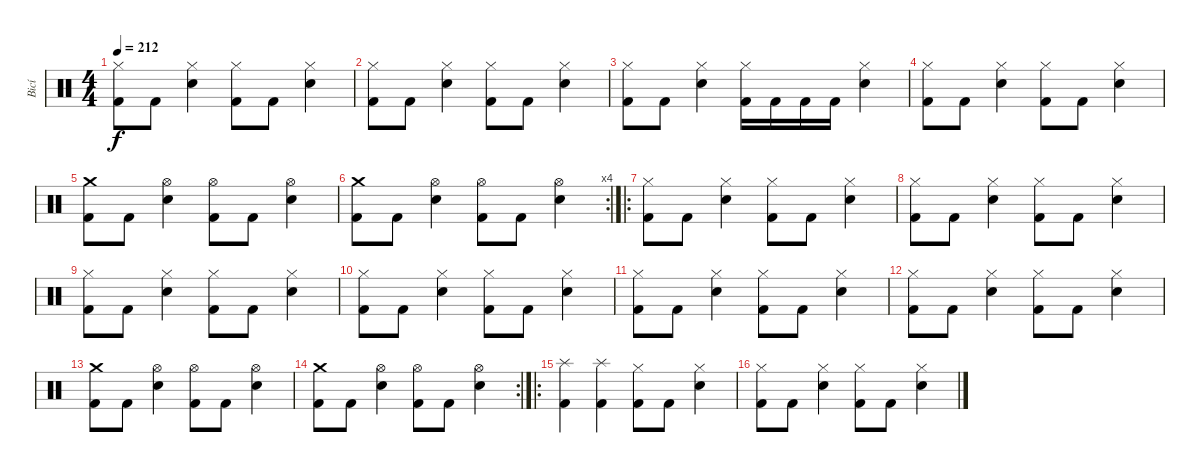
\track ("Bicí" "Bicí") {instrument percussion}
\staff {score}
\articulation defaults
\ts (4 4)
\tempo 212
\clef neutral
\ks c
("Kick (hit) 2" "Hi-Hat (closed)").8{dy f} "Kick (hit) 2".8 ("Snare (hit) 2" "Hi-Hat (closed)").4 ("Kick (hit) 2" "Hi-Hat (closed)").8 "Kick (hit) 2".8 ("Snare (hit) 2" "Hi-Hat (closed)").4 |
("Kick (hit) 2" "Hi-Hat (closed)").8 "Kick (hit) 2".8 ("Snare (hit) 2" "Hi-Hat (closed)").4 ("Kick (hit) 2" "Hi-Hat (closed)").8 "Kick (hit) 2".8 ("Snare (hit) 2" "Hi-Hat (closed)").4 |
("Kick (hit) 2" "Hi-Hat (closed)").8 "Kick (hit) 2".8 ("Snare (hit) 2" "Hi-Hat (closed)").4 ("Kick (hit) 2" "Hi-Hat (closed)").16 "Kick (hit) 2".16 "Kick (hit) 2".16 "Kick (hit) 2".16 ("Snare (hit) 2" "Hi-Hat (closed)").4 |
("Kick (hit) 2" "Hi-Hat (closed)").8 "Kick (hit) 2".8 ("Snare (hit) 2" "Hi-Hat (closed)").4 ("Kick (hit) 2" "Hi-Hat (closed)").8 "Kick (hit) 2".8 ("Snare (hit) 2" "Hi-Hat (closed)").4 |
("Kick (hit) 2" "Crash medium (hit)").8 "Kick (hit) 2".8 ("Snare (hit) 2" "Hi-Hat (open)").4 ("Kick (hit) 2" "Hi-Hat (open)").8 "Kick (hit) 2".8 ("Snare (hit) 2" "Hi-Hat (open)").4 |
\rc 4
("Kick (hit) 2" "Crash medium (hit)").8 "Kick (hit) 2".8 ("Snare (hit) 2" "Hi-Hat (open)").4 ("Kick (hit) 2" "Hi-Hat (open)").8 "Kick (hit) 2".8 ("Snare (hit) 2" "Hi-Hat (open)").4 |
\ro
("Kick (hit) 2" "Hi-Hat (closed)").8 "Kick (hit) 2".8 ("Snare (hit) 2" "Hi-Hat (closed)").4 ("Kick (hit) 2" "Hi-Hat (closed)").8 "Kick (hit) 2".8 ("Snare (hit) 2" "Hi-Hat (closed)").4 |
("Kick (hit) 2" "Hi-Hat (closed)").8 "Kick (hit) 2".8 ("Snare (hit) 2" "Hi-Hat (closed)").4 ("Kick (hit) 2" "Hi-Hat (closed)").8 "Kick (hit) 2".8 ("Snare (hit) 2" "Hi-Hat (closed)").4 |
("Kick (hit) 2" "Hi-Hat (closed)").8 "Kick (hit) 2".8 ("Snare (hit) 2" "Hi-Hat (closed)").4 ("Kick (hit) 2" "Hi-Hat (closed)").8 "Kick (hit) 2".8 ("Snare (hit) 2" "Hi-Hat (closed)").4 |
("Kick (hit) 2" "Hi-Hat (closed)").8 "Kick (hit) 2".8 ("Snare (hit) 2" "Hi-Hat (closed)").4 ("Kick (hit) 2" "Hi-Hat (closed)").8 "Kick (hit) 2".8 ("Snare (hit) 2" "Hi-Hat (closed)").4 |
("Kick (hit) 2" "Hi-Hat (closed)").8 "Kick (hit) 2".8 ("Snare (hit) 2" "Hi-Hat (closed)").4 ("Kick (hit) 2" "Hi-Hat (closed)").8 "Kick (hit) 2".8 ("Snare (hit) 2" "Hi-Hat (closed)").4 |
("Kick (hit) 2" "Hi-Hat (closed)").8 "Kick (hit) 2".8 ("Snare (hit) 2" "Hi-Hat (closed)").4 ("Kick (hit) 2" "Hi-Hat (closed)").8 "Kick (hit) 2".8 ("Snare (hit) 2" "Hi-Hat (closed)").4 |
("Kick (hit) 2" "Crash medium (hit)").8 "Kick (hit) 2".8 ("Snare (hit) 2" "Hi-Hat (open)").4 ("Kick (hit) 2" "Hi-Hat (open)").8 "Kick (hit) 2".8 ("Snare (hit) 2" "Hi-Hat (open)").4 |
\rc 2
("Kick (hit) 2" "Crash medium (hit)").8 "Kick (hit) 2".8 ("Snare (hit) 2" "Hi-Hat (open)").4 ("Kick (hit) 2" "Hi-Hat (open)").8 "Kick (hit) 2".8 ("Snare (hit) 2" "Hi-Hat (open)").4 |
\ro
("Kick (hit) 2" "Splash (hit)").4 ("Kick (hit) 2" "Splash (hit)").4 ("Kick (hit) 2" "Hi-Hat (closed)").8 "Kick (hit) 2".8 ("Snare (hit) 2" "Hi-Hat (closed)").4 |
("Kick (hit) 2" "Hi-Hat (closed)").8 "Kick (hit) 2".8 ("Snare (hit) 2" "Hi-Hat (closed)").4 ("Kick (hit) 2" "Hi-Hat (closed)").8 "Kick (hit) 2".8 ("Snare (hit) 2" "Hi-Hat (closed)").4
